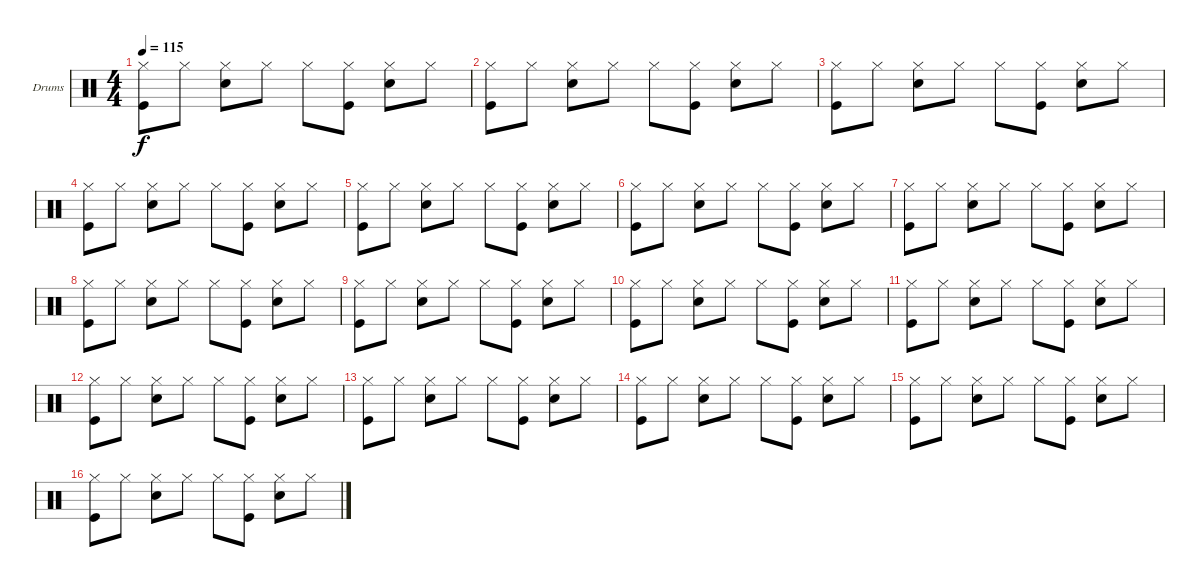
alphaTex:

\defaultSystemsLayout 4
\bracketExtendMode groupsimilarinstruments
\firstSystemTrackNameOrientation horizontal
\otherSystemsTrackNameOrientation horizontal
\track ("Drumkit" "Drums") {instrument percussion}
\staff {score}
\articulation defaults
\ts (4 4)
\tempo 115
\clef neutral
\ks c
("Kick (hit)" "Hi-Hat (closed)").8{dy f} "Hi-Hat (closed)".8 ("Hi-Hat (closed)" "Snare (hit) 2").8 "Hi-Hat (closed)".8 "Hi-Hat (closed)".8 ("Hi-Hat (closed)" "Kick (hit)").8 ("Hi-Hat (closed)" "Snare (hit) 2").8 "Hi-Hat (closed)".8 |
("Kick (hit)" "Hi-Hat (closed)").8 "Hi-Hat (closed)".8 ("Hi-Hat (closed)" "Snare (hit) 2").8 "Hi-Hat (closed)".8 "Hi-Hat (closed)".8 ("Hi-Hat (closed)" "Kick (hit)").8 ("Hi-Hat (closed)" "Snare (hit) 2").8 "Hi-Hat (closed)".8 |
("Kick (hit)" "Hi-Hat (closed)").8 "Hi-Hat (closed)".8 ("Hi-Hat (closed)" "Snare (hit) 2").8 "Hi-Hat (closed)".8 "Hi-Hat (closed)".8 ("Hi-Hat (closed)" "Kick (hit)").8 ("Hi-Hat (closed)" "Snare (hit) 2").8 "Hi-Hat (closed)".8 |
("Kick (hit)" "Hi-Hat (closed)").8 "Hi-Hat (closed)".8 ("Hi-Hat (closed)" "Snare (hit) 2").8 "Hi-Hat (closed)".8 "Hi-Hat (closed)".8 ("Hi-Hat (closed)" "Kick (hit)").8 ("Hi-Hat (closed)" "Snare (hit) 2").8 "Hi-Hat (closed)".8 |
("Kick (hit)" "Hi-Hat (closed)").8 "Hi-Hat (closed)".8 ("Hi-Hat (closed)" "Snare (hit) 2").8 "Hi-Hat (closed)".8 "Hi-Hat (closed)".8 ("Hi-Hat (closed)" "Kick (hit)").8 ("Hi-Hat (closed)" "Snare (hit) 2").8 "Hi-Hat (closed)".8 |
("Kick (hit)" "Hi-Hat (closed)").8 "Hi-Hat (closed)".8 ("Hi-Hat (closed)" "Snare (hit) 2").8 "Hi-Hat (closed)".8 "Hi-Hat (closed)".8 ("Hi-Hat (closed)" "Kick (hit)").8 ("Hi-Hat (closed)" "Snare (hit) 2").8 "Hi-Hat (closed)".8 |
("Kick (hit)" "Hi-Hat (closed)").8 "Hi-Hat (closed)".8 ("Hi-Hat (closed)" "Snare (hit) 2").8 "Hi-Hat (closed)".8 "Hi-Hat (closed)".8 ("Hi-Hat (closed)" "Kick (hit)").8 ("Hi-Hat (closed)" "Snare (hit) 2").8 "Hi-Hat (closed)".8 |
("Kick (hit)" "Hi-Hat (closed)").8 "Hi-Hat (closed)".8 ("Hi-Hat (closed)" "Snare (hit) 2").8 "Hi-Hat (closed)".8 "Hi-Hat (closed)".8 ("Hi-Hat (closed)" "Kick (hit)").8 ("Hi-Hat (closed)" "Snare (hit) 2").8 "Hi-Hat (closed)".8 |
("Kick (hit)" "Hi-Hat (closed)").8 "Hi-Hat (closed)".8 ("Hi-Hat (closed)" "Snare (hit) 2").8 "Hi-Hat (closed)".8 "Hi-Hat (closed)".8 ("Hi-Hat (closed)" "Kick (hit)").8 ("Hi-Hat (closed)" "Snare (hit) 2").8 "Hi-Hat (closed)".8 |
("Kick (hit)" "Hi-Hat (closed)").8 "Hi-Hat (closed)".8 ("Hi-Hat (closed)" "Snare (hit) 2").8 "Hi-Hat (closed)".8 "Hi-Hat (closed)".8 ("Hi-Hat (closed)" "Kick (hit)").8 ("Hi-Hat (closed)" "Snare (hit) 2").8 "Hi-Hat (closed)".8 |
("Kick (hit)" "Hi-Hat (closed)").8 "Hi-Hat (closed)".8 ("Hi-Hat (closed)" "Snare (hit) 2").8 "Hi-Hat (closed)".8 "Hi-Hat (closed)".8 ("Hi-Hat (closed)" "Kick (hit)").8 ("Hi-Hat (closed)" "Snare (hit) 2").8 "Hi-Hat (closed)".8 |
("Kick (hit)" "Hi-Hat (closed)").8 "Hi-Hat (closed)".8 ("Hi-Hat (closed)" "Snare (hit) 2").8 "Hi-Hat (closed)".8 "Hi-Hat (closed)".8 ("Hi-Hat (closed)" "Kick (hit)").8 ("Hi-Hat (closed)" "Snare (hit) 2").8 "Hi-Hat (closed)".8 |
("Kick (hit)" "Hi-Hat (closed)").8 "Hi-Hat (closed)".8 ("Hi-Hat (closed)" "Snare (hit) 2").8 "Hi-Hat (closed)".8 "Hi-Hat (closed)".8 ("Hi-Hat (closed)" "Kick (hit)").8 ("Hi-Hat (closed)" "Snare (hit) 2").8 "Hi-Hat (closed)".8 |
("Kick (hit)" "Hi-Hat (closed)").8 "Hi-Hat (closed)".8 ("Hi-Hat (closed)" "Snare (hit) 2").8 "Hi-Hat (closed)".8 "Hi-Hat (closed)".8 ("Hi-Hat (closed)" "Kick (hit)").8 ("Hi-Hat (closed)" "Snare (hit) 2").8 "Hi-Hat (closed)".8 |
("Kick (hit)" "Hi-Hat (closed)").8 "Hi-Hat (closed)".8 ("Hi-Hat (closed)" "Snare (hit) 2").8 "Hi-Hat (closed)".8 "Hi-Hat (closed)".8 ("Hi-Hat (closed)" "Kick (hit)").8 ("Hi-Hat (closed)" "Snare (hit) 2").8 "Hi-Hat (closed)".8 |
("Kick (hit)" "Hi-Hat (closed)").8 "Hi-Hat (closed)".8 ("Hi-Hat (closed)" "Snare (hit) 2").8 "Hi-Hat (closed)".8 "Hi-Hat (closed)".8 ("Hi-Hat (closed)" "Kick (hit)").8 ("Hi-Hat (closed)" "Snare (hit) 2").8 "Hi-Hat (closed)".8
